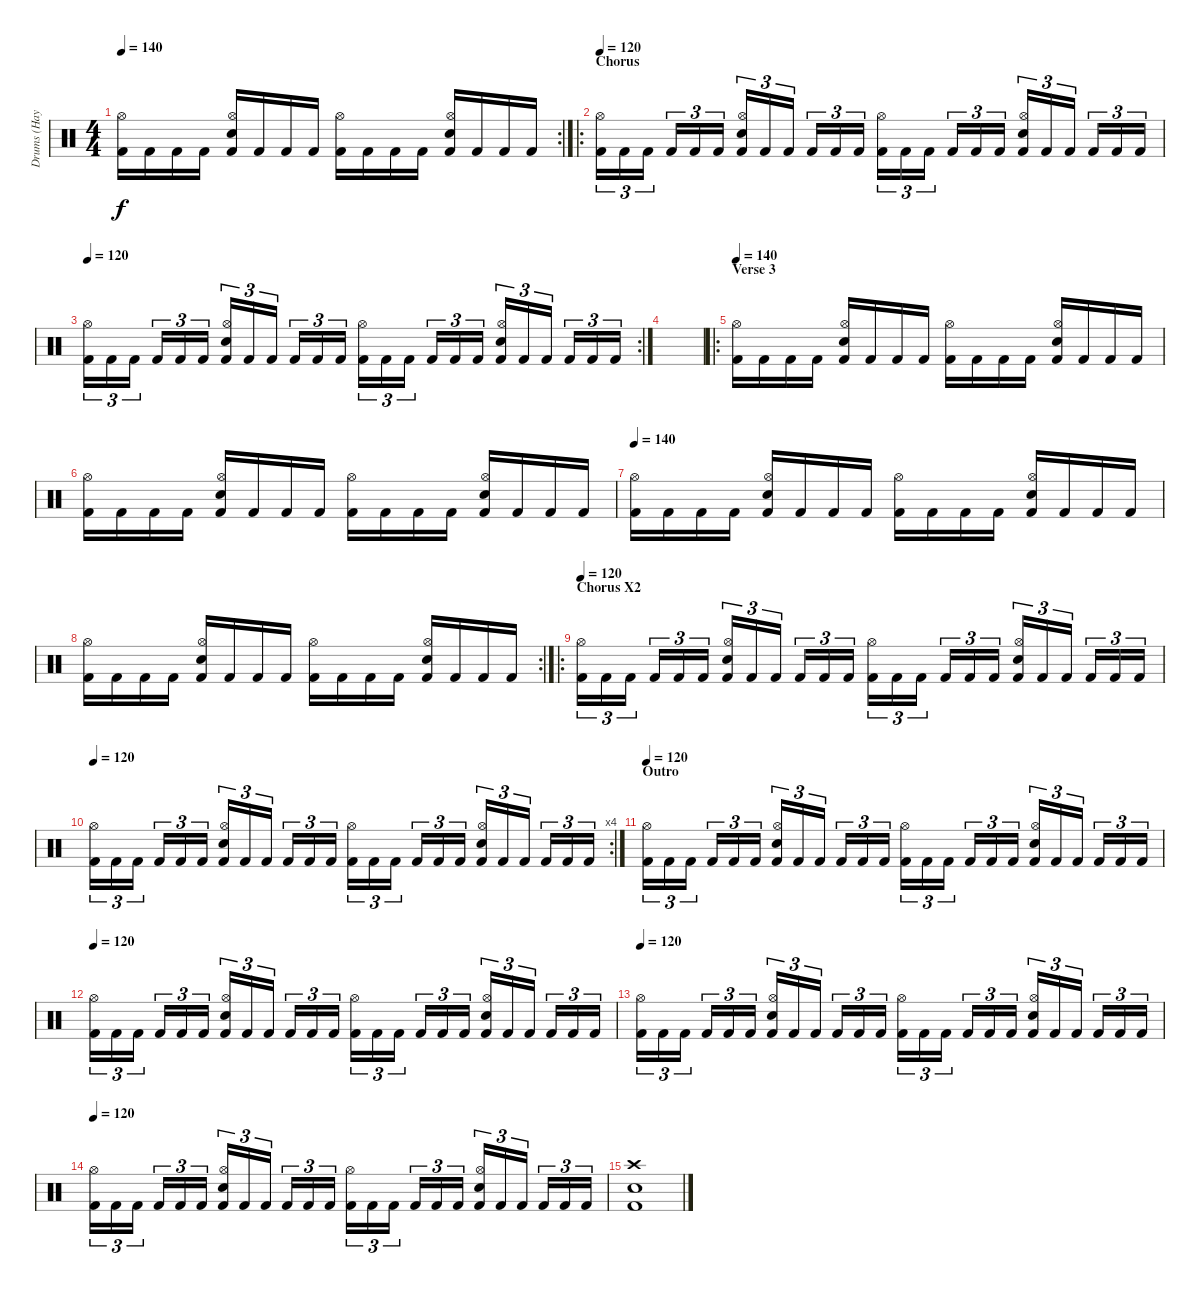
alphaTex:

\track ("Drums (Hayden)" "Drums (Hay") {instrument percussion}
\staff {score}
\articulation defaults
\rc 2
\ts (4 4)
\tempo 140
\clef neutral
\ks c
("Kick (hit) 2" "Hi-Hat (open)").16{dy f} "Kick (hit) 2".16 "Kick (hit) 2".16 "Kick (hit) 2".16 ("Kick (hit) 2" "Hi-Hat (open)" "Electric Snare (hit)").16 "Kick (hit) 2".16 "Kick (hit) 2".16 "Kick (hit) 2".16 ("Kick (hit) 2" "Hi-Hat (open)").16 "Kick (hit) 2".16 "Kick (hit) 2".16 "Kick (hit) 2".16 ("Kick (hit) 2" "Hi-Hat (open)" "Electric Snare (hit)").16 "Kick (hit) 2".16 "Kick (hit) 2".16 "Kick (hit) 2".16 |
\ro
\section ("" "Chorus")
\tempo 120
("Kick (hit) 2" "Hi-Hat (open)").16{tu (3 2)} "Kick (hit) 2".16{tu (3 2)} "Kick (hit) 2".16{tu (3 2)} "Kick (hit) 2".16{tu (3 2)} "Kick (hit) 2".16{tu (3 2)} "Kick (hit) 2".16{tu (3 2)} ("Kick (hit) 2" "Hi-Hat (open)" "Electric Snare (hit)").16{tu (3 2)} "Kick (hit) 2".16{tu (3 2)} "Kick (hit) 2".16{tu (3 2)} "Kick (hit) 2".16{tu (3 2)} "Kick (hit) 2".16{tu (3 2)} "Kick (hit) 2".16{tu (3 2)} ("Kick (hit) 2" "Hi-Hat (open)").16{tu (3 2)} "Kick (hit) 2".16{tu (3 2)} "Kick (hit) 2".16{tu (3 2)} "Kick (hit) 2".16{tu (3 2)} "Kick (hit) 2".16{tu (3 2)} "Kick (hit) 2".16{tu (3 2)} ("Kick (hit) 2" "Hi-Hat (open)" "Electric Snare (hit)").16{tu (3 2)} "Kick (hit) 2".16{tu (3 2)} "Kick (hit) 2".16{tu (3 2)} "Kick (hit) 2".16{tu (3 2)} "Kick (hit) 2".16{tu (3 2)} "Kick (hit) 2".16{tu (3 2)} |
\rc 2
\tempo 120
("Kick (hit) 2" "Hi-Hat (open)").16{tu (3 2)} "Kick (hit) 2".16{tu (3 2)} "Kick (hit) 2".16{tu (3 2)} "Kick (hit) 2".16{tu (3 2)} "Kick (hit) 2".16{tu (3 2)} "Kick (hit) 2".16{tu (3 2)} ("Kick (hit) 2" "Hi-Hat (open)" "Electric Snare (hit)").16{tu (3 2)} "Kick (hit) 2".16{tu (3 2)} "Kick (hit) 2".16{tu (3 2)} "Kick (hit) 2".16{tu (3 2)} "Kick (hit) 2".16{tu (3 2)} "Kick (hit) 2".16{tu (3 2)} ("Kick (hit) 2" "Hi-Hat (open)").16{tu (3 2)} "Kick (hit) 2".16{tu (3 2)} "Kick (hit) 2".16{tu (3 2)} "Kick (hit) 2".16{tu (3 2)} "Kick (hit) 2".16{tu (3 2)} "Kick (hit) 2".16{tu (3 2)} ("Kick (hit) 2" "Hi-Hat (open)" "Electric Snare (hit)").16{tu (3 2)} "Kick (hit) 2".16{tu (3 2)} "Kick (hit) 2".16{tu (3 2)} "Kick (hit) 2".16{tu (3 2)} "Kick (hit) 2".16{tu (3 2)} "Kick (hit) 2".16{tu (3 2)} |
|
\ro
\section ("" "Verse 3")
\tempo 140
("Kick (hit) 2" "Hi-Hat (open)").16 "Kick (hit) 2".16 "Kick (hit) 2".16 "Kick (hit) 2".16 ("Kick (hit) 2" "Hi-Hat (open)" "Electric Snare (hit)").16 "Kick (hit) 2".16 "Kick (hit) 2".16 "Kick (hit) 2".16 ("Kick (hit) 2" "Hi-Hat (open)").16 "Kick (hit) 2".16 "Kick (hit) 2".16 "Kick (hit) 2".16 ("Kick (hit) 2" "Hi-Hat (open)" "Electric Snare (hit)").16 "Kick (hit) 2".16 "Kick (hit) 2".16 "Kick (hit) 2".16 |
("Kick (hit) 2" "Hi-Hat (open)").16 "Kick (hit) 2".16 "Kick (hit) 2".16 "Kick (hit) 2".16 ("Kick (hit) 2" "Hi-Hat (open)" "Electric Snare (hit)").16 "Kick (hit) 2".16 "Kick (hit) 2".16 "Kick (hit) 2".16 ("Kick (hit) 2" "Hi-Hat (open)").16 "Kick (hit) 2".16 "Kick (hit) 2".16 "Kick (hit) 2".16 ("Kick (hit) 2" "Hi-Hat (open)" "Electric Snare (hit)").16 "Kick (hit) 2".16 "Kick (hit) 2".16 "Kick (hit) 2".16 |
\tempo 140
("Kick (hit) 2" "Hi-Hat (open)").16 "Kick (hit) 2".16 "Kick (hit) 2".16 "Kick (hit) 2".16 ("Kick (hit) 2" "Hi-Hat (open)" "Electric Snare (hit)").16 "Kick (hit) 2".16 "Kick (hit) 2".16 "Kick (hit) 2".16 ("Kick (hit) 2" "Hi-Hat (open)").16 "Kick (hit) 2".16 "Kick (hit) 2".16 "Kick (hit) 2".16 ("Kick (hit) 2" "Hi-Hat (open)" "Electric Snare (hit)").16 "Kick (hit) 2".16 "Kick (hit) 2".16 "Kick (hit) 2".16 |
\rc 2
("Kick (hit) 2" "Hi-Hat (open)").16 "Kick (hit) 2".16 "Kick (hit) 2".16 "Kick (hit) 2".16 ("Kick (hit) 2" "Hi-Hat (open)" "Electric Snare (hit)").16 "Kick (hit) 2".16 "Kick (hit) 2".16 "Kick (hit) 2".16 ("Kick (hit) 2" "Hi-Hat (open)").16 "Kick (hit) 2".16 "Kick (hit) 2".16 "Kick (hit) 2".16 ("Kick (hit) 2" "Hi-Hat (open)" "Electric Snare (hit)").16 "Kick (hit) 2".16 "Kick (hit) 2".16 "Kick (hit) 2".16 |
\ro
\section ("" "Chorus X2")
\tempo 120
("Kick (hit) 2" "Hi-Hat (open)").16{tu (3 2)} "Kick (hit) 2".16{tu (3 2)} "Kick (hit) 2".16{tu (3 2)} "Kick (hit) 2".16{tu (3 2)} "Kick (hit) 2".16{tu (3 2)} "Kick (hit) 2".16{tu (3 2)} ("Kick (hit) 2" "Hi-Hat (open)" "Electric Snare (hit)").16{tu (3 2)} "Kick (hit) 2".16{tu (3 2)} "Kick (hit) 2".16{tu (3 2)} "Kick (hit) 2".16{tu (3 2)} "Kick (hit) 2".16{tu (3 2)} "Kick (hit) 2".16{tu (3 2)} ("Kick (hit) 2" "Hi-Hat (open)").16{tu (3 2)} "Kick (hit) 2".16{tu (3 2)} "Kick (hit) 2".16{tu (3 2)} "Kick (hit) 2".16{tu (3 2)} "Kick (hit) 2".16{tu (3 2)} "Kick (hit) 2".16{tu (3 2)} ("Kick (hit) 2" "Hi-Hat (open)" "Electric Snare (hit)").16{tu (3 2)} "Kick (hit) 2".16{tu (3 2)} "Kick (hit) 2".16{tu (3 2)} "Kick (hit) 2".16{tu (3 2)} "Kick (hit) 2".16{tu (3 2)} "Kick (hit) 2".16{tu (3 2)} |
\rc 4
\tempo 120
("Kick (hit) 2" "Hi-Hat (open)").16{tu (3 2)} "Kick (hit) 2".16{tu (3 2)} "Kick (hit) 2".16{tu (3 2)} "Kick (hit) 2".16{tu (3 2)} "Kick (hit) 2".16{tu (3 2)} "Kick (hit) 2".16{tu (3 2)} ("Kick (hit) 2" "Hi-Hat (open)" "Electric Snare (hit)").16{tu (3 2)} "Kick (hit) 2".16{tu (3 2)} "Kick (hit) 2".16{tu (3 2)} "Kick (hit) 2".16{tu (3 2)} "Kick (hit) 2".16{tu (3 2)} "Kick (hit) 2".16{tu (3 2)} ("Kick (hit) 2" "Hi-Hat (open)").16{tu (3 2)} "Kick (hit) 2".16{tu (3 2)} "Kick (hit) 2".16{tu (3 2)} "Kick (hit) 2".16{tu (3 2)} "Kick (hit) 2".16{tu (3 2)} "Kick (hit) 2".16{tu (3 2)} ("Kick (hit) 2" "Hi-Hat (open)" "Electric Snare (hit)").16{tu (3 2)} "Kick (hit) 2".16{tu (3 2)} "Kick (hit) 2".16{tu (3 2)} "Kick (hit) 2".16{tu (3 2)} "Kick (hit) 2".16{tu (3 2)} "Kick (hit) 2".16{tu (3 2)} |
\section ("" "Outro")
\tempo 120
("Kick (hit) 2" "Hi-Hat (open)").16{tu (3 2)} "Kick (hit) 2".16{tu (3 2)} "Kick (hit) 2".16{tu (3 2)} "Kick (hit) 2".16{tu (3 2)} "Kick (hit) 2".16{tu (3 2)} "Kick (hit) 2".16{tu (3 2)} ("Kick (hit) 2" "Hi-Hat (open)" "Electric Snare (hit)").16{tu (3 2)} "Kick (hit) 2".16{tu (3 2)} "Kick (hit) 2".16{tu (3 2)} "Kick (hit) 2".16{tu (3 2)} "Kick (hit) 2".16{tu (3 2)} "Kick (hit) 2".16{tu (3 2)} ("Kick (hit) 2" "Hi-Hat (open)").16{tu (3 2)} "Kick (hit) 2".16{tu (3 2)} "Kick (hit) 2".16{tu (3 2)} "Kick (hit) 2".16{tu (3 2)} "Kick (hit) 2".16{tu (3 2)} "Kick (hit) 2".16{tu (3 2)} ("Kick (hit) 2" "Hi-Hat (open)" "Electric Snare (hit)").16{tu (3 2)} "Kick (hit) 2".16{tu (3 2)} "Kick (hit) 2".16{tu (3 2)} "Kick (hit) 2".16{tu (3 2)} "Kick (hit) 2".16{tu (3 2)} "Kick (hit) 2".16{tu (3 2)} |
\tempo 120
("Kick (hit) 2" "Hi-Hat (open)").16{tu (3 2)} "Kick (hit) 2".16{tu (3 2)} "Kick (hit) 2".16{tu (3 2)} "Kick (hit) 2".16{tu (3 2)} "Kick (hit) 2".16{tu (3 2)} "Kick (hit) 2".16{tu (3 2)} ("Kick (hit) 2" "Hi-Hat (open)" "Electric Snare (hit)").16{tu (3 2)} "Kick (hit) 2".16{tu (3 2)} "Kick (hit) 2".16{tu (3 2)} "Kick (hit) 2".16{tu (3 2)} "Kick (hit) 2".16{tu (3 2)} "Kick (hit) 2".16{tu (3 2)} ("Kick (hit) 2" "Hi-Hat (open)").16{tu (3 2)} "Kick (hit) 2".16{tu (3 2)} "Kick (hit) 2".16{tu (3 2)} "Kick (hit) 2".16{tu (3 2)} "Kick (hit) 2".16{tu (3 2)} "Kick (hit) 2".16{tu (3 2)} ("Kick (hit) 2" "Hi-Hat (open)" "Electric Snare (hit)").16{tu (3 2)} "Kick (hit) 2".16{tu (3 2)} "Kick (hit) 2".16{tu (3 2)} "Kick (hit) 2".16{tu (3 2)} "Kick (hit) 2".16{tu (3 2)} "Kick (hit) 2".16{tu (3 2)} |
\tempo 120
("Kick (hit) 2" "Hi-Hat (open)").16{tu (3 2)} "Kick (hit) 2".16{tu (3 2)} "Kick (hit) 2".16{tu (3 2)} "Kick (hit) 2".16{tu (3 2)} "Kick (hit) 2".16{tu (3 2)} "Kick (hit) 2".16{tu (3 2)} ("Kick (hit) 2" "Hi-Hat (open)" "Electric Snare (hit)").16{tu (3 2)} "Kick (hit) 2".16{tu (3 2)} "Kick (hit) 2".16{tu (3 2)} "Kick (hit) 2".16{tu (3 2)} "Kick (hit) 2".16{tu (3 2)} "Kick (hit) 2".16{tu (3 2)} ("Kick (hit) 2" "Hi-Hat (open)").16{tu (3 2)} "Kick (hit) 2".16{tu (3 2)} "Kick (hit) 2".16{tu (3 2)} "Kick (hit) 2".16{tu (3 2)} "Kick (hit) 2".16{tu (3 2)} "Kick (hit) 2".16{tu (3 2)} ("Kick (hit) 2" "Hi-Hat (open)" "Electric Snare (hit)").16{tu (3 2)} "Kick (hit) 2".16{tu (3 2)} "Kick (hit) 2".16{tu (3 2)} "Kick (hit) 2".16{tu (3 2)} "Kick (hit) 2".16{tu (3 2)} "Kick (hit) 2".16{tu (3 2)} |
\tempo 120
("Kick (hit) 2" "Hi-Hat (open)").16{tu (3 2)} "Kick (hit) 2".16{tu (3 2)} "Kick (hit) 2".16{tu (3 2)} "Kick (hit) 2".16{tu (3 2)} "Kick (hit) 2".16{tu (3 2)} "Kick (hit) 2".16{tu (3 2)} ("Kick (hit) 2" "Hi-Hat (open)" "Electric Snare (hit)").16{tu (3 2)} "Kick (hit) 2".16{tu (3 2)} "Kick (hit) 2".16{tu (3 2)} "Kick (hit) 2".16{tu (3 2)} "Kick (hit) 2".16{tu (3 2)} "Kick (hit) 2".16{tu (3 2)} ("Kick (hit) 2" "Hi-Hat (open)").16{tu (3 2)} "Kick (hit) 2".16{tu (3 2)} "Kick (hit) 2".16{tu (3 2)} "Kick (hit) 2".16{tu (3 2)} "Kick (hit) 2".16{tu (3 2)} "Kick (hit) 2".16{tu (3 2)} ("Kick (hit) 2" "Hi-Hat (open)" "Electric Snare (hit)").16{tu (3 2)} "Kick (hit) 2".16{tu (3 2)} "Kick (hit) 2".16{tu (3 2)} "Kick (hit) 2".16{tu (3 2)} "Kick (hit) 2".16{tu (3 2)} "Kick (hit) 2".16{tu (3 2)} |
("Crash high (hit)" "Electric Snare (hit)" "Kick (hit) 2").1
